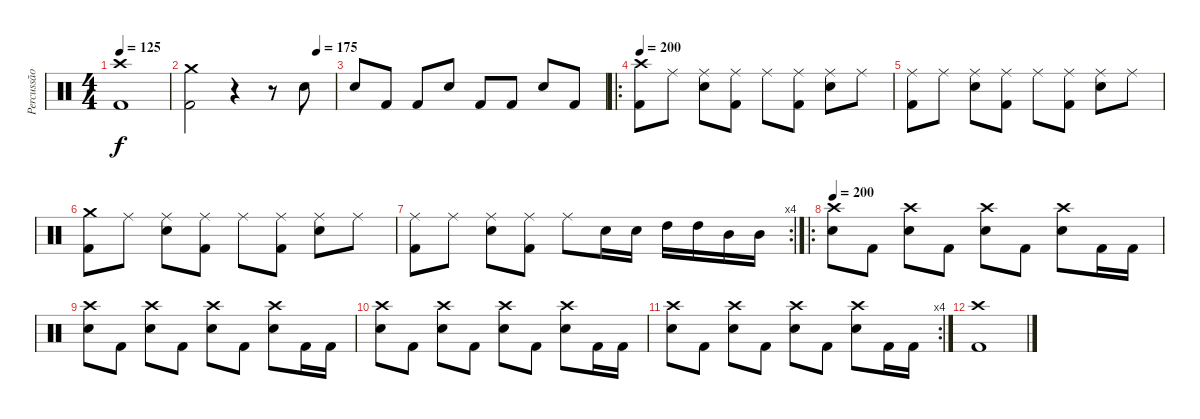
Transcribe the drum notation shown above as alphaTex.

\track ("Percussão" "Percussão") {instrument percussion}
\staff {score}
\articulation defaults
\ts (4 4)
\tempo 125
\clef neutral
\ks c
("Crash high (hit)" "Kick (hit) 2").1{dy f} |
\tempo (175 0.875)
("Crash medium (hit)" "Kick (hit) 2").2 r.4 r.8 "Electric Snare (hit)".8 |
"Electric Snare (hit)".8 "Kick (hit) 2".8 "Kick (hit) 2".8 "Electric Snare (hit)".8 "Kick (hit) 2".8 "Kick (hit) 2".8 "Electric Snare (hit)".8 "Kick (hit) 2".8 |
\ro
\tempo 200
("Crash high (hit)" "Kick (hit) 2").8 "Ride (middle)".8 ("Ride (middle)" "Electric Snare (hit)").8 ("Ride (middle)" "Kick (hit) 2").8 "Ride (middle)".8 ("Ride (middle)" "Kick (hit) 2").8 ("Ride (middle)" "Electric Snare (hit)").8 "Ride (middle)".8 |
("Ride (middle)" "Kick (hit) 2").8 "Ride (middle)".8 ("Ride (middle)" "Electric Snare (hit)").8 ("Ride (middle)" "Kick (hit) 2").8 "Ride (middle)".8 ("Ride (middle)" "Kick (hit) 2").8 ("Ride (middle)" "Electric Snare (hit)").8 "Ride (middle)".8 |
("Crash medium (hit)" "Kick (hit) 2").8 "Ride (middle)".8 ("Ride (middle)" "Electric Snare (hit)").8 ("Ride (middle)" "Kick (hit) 2").8 "Ride (middle)".8 ("Ride (middle)" "Kick (hit) 2").8 ("Ride (middle)" "Electric Snare (hit)").8 "Ride (middle)".8 |
\rc 4
("Ride (middle)" "Kick (hit) 2").8 "Ride (middle)".8 ("Ride (middle)" "Electric Snare (hit)").8 ("Ride (middle)" "Kick (hit) 2").8 "Ride (middle)".8 "Electric Snare (hit)".16 "Electric Snare (hit)".16 "High Tom (hit)".16 "High Tom (hit)".16 "Mid Tom (hit)".16 "Mid Tom (hit)".16 |
\ro
\tempo 200
("Crash high (hit)" "Electric Snare (hit)").8 "Kick (hit) 2".8 ("Crash high (hit)" "Electric Snare (hit)").8 "Kick (hit) 2".8 ("Crash high (hit)" "Electric Snare (hit)").8 "Kick (hit) 2".8 ("Crash high (hit)" "Electric Snare (hit)").8 "Kick (hit) 2".16 "Kick (hit) 2".16 |
("Crash high (hit)" "Electric Snare (hit)").8 "Kick (hit) 2".8 ("Crash high (hit)" "Electric Snare (hit)").8 "Kick (hit) 2".8 ("Crash high (hit)" "Electric Snare (hit)").8 "Kick (hit) 2".8 ("Crash high (hit)" "Electric Snare (hit)").8 "Kick (hit) 2".16 "Kick (hit) 2".16 |
("Crash high (hit)" "Electric Snare (hit)").8 "Kick (hit) 2".8 ("Crash high (hit)" "Electric Snare (hit)").8 "Kick (hit) 2".8 ("Crash high (hit)" "Electric Snare (hit)").8 "Kick (hit) 2".8 ("Crash high (hit)" "Electric Snare (hit)").8 "Kick (hit) 2".16 "Kick (hit) 2".16 |
\rc 4
("Crash high (hit)" "Electric Snare (hit)").8 "Kick (hit) 2".8 ("Crash high (hit)" "Electric Snare (hit)").8 "Kick (hit) 2".8 ("Crash high (hit)" "Electric Snare (hit)").8 "Kick (hit) 2".8 ("Crash high (hit)" "Electric Snare (hit)").8 "Kick (hit) 2".16 "Kick (hit) 2".16 |
("Crash high (hit)" "Kick (hit) 2").1
